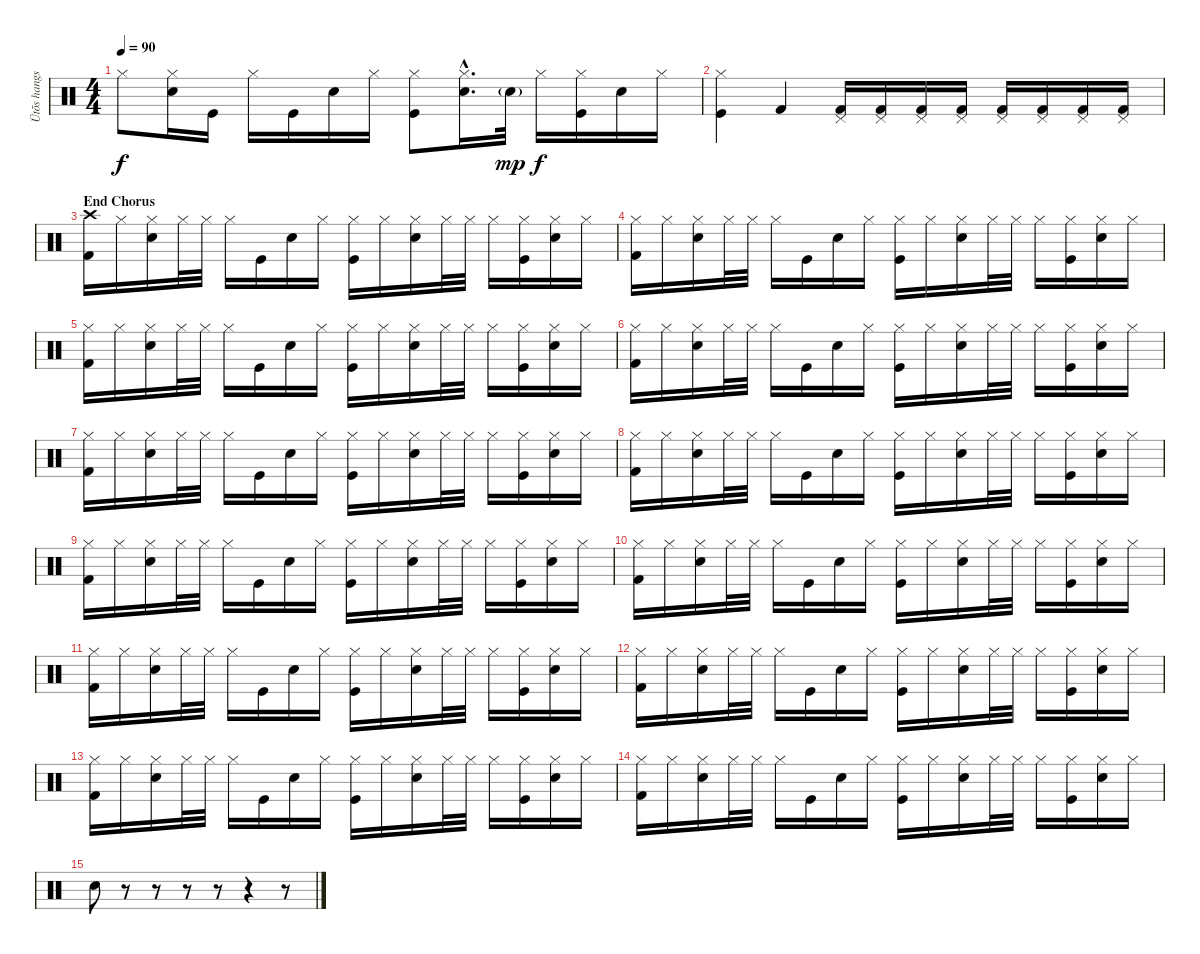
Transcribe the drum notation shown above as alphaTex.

\track ("Ütõs hangszer" "Ütõs hangs") {instrument percussion}
\staff {score}
\articulation defaults
\ts (4 4)
\tempo 90
\clef neutral
\ks c "Hi-Hat (closed)".8{dy f}
("Hi-Hat (closed)" "Electric Snare (hit)").16 "Kick (hit)".16 "Hi-Hat (closed)".16 "Kick (hit)".16 "Electric Snare (hit)".16 "Hi-Hat (closed)".16 ("Hi-Hat (closed)" "Kick (hit)").8 ("Hi-Hat (closed)"{hac} "Electric Snare (hit)"{hac}).16{d} "Electric Snare (hit)"{g}.32{dy mp} "Hi-Hat (closed)".16{dy f} ("Hi-Hat (closed)" "Kick (hit)").16 "Electric Snare (hit)".16 "Hi-Hat (closed)".16 |
("Hi-Hat (closed)" "Kick (hit)").4 "Kick (hit) 2".4 ("Pedal Hi-Hat (hit)" "Kick (hit) 2").16 ("Pedal Hi-Hat (hit)" "Kick (hit) 2").16 ("Pedal Hi-Hat (hit)" "Kick (hit) 2").16 ("Pedal Hi-Hat (hit)" "Kick (hit) 2").16 ("Pedal Hi-Hat (hit)" "Kick (hit) 2").16 ("Pedal Hi-Hat (hit)" "Kick (hit) 2").16 ("Pedal Hi-Hat (hit)" "Kick (hit) 2").16 ("Pedal Hi-Hat (hit)" "Kick (hit) 2").16 |
\section ("" "End Chorus")
("Crash high (hit)" "Kick (hit) 2").16 "Hi-Hat (closed)".16 ("Hi-Hat (closed)" "Electric Snare (hit)").16 "Hi-Hat (closed)".32 "Hi-Hat (closed)".32 "Hi-Hat (closed)".16 "Kick (hit)".16 "Electric Snare (hit)".16 "Hi-Hat (closed)".16 ("Hi-Hat (closed)" "Kick (hit)").16 "Hi-Hat (closed)".16 ("Hi-Hat (closed)" "Electric Snare (hit)").16 "Hi-Hat (closed)".32 "Hi-Hat (closed)".32 "Hi-Hat (closed)".16 ("Hi-Hat (closed)" "Kick (hit)").16 ("Hi-Hat (closed)" "Electric Snare (hit)").16 "Hi-Hat (closed)".16 |
("Hi-Hat (closed)" "Kick (hit) 2").16 "Hi-Hat (closed)".16 ("Hi-Hat (closed)" "Electric Snare (hit)").16 "Hi-Hat (closed)".32 "Hi-Hat (closed)".32 "Hi-Hat (closed)".16 "Kick (hit)".16 "Electric Snare (hit)".16 "Hi-Hat (closed)".16 ("Hi-Hat (closed)" "Kick (hit)").16 "Hi-Hat (closed)".16 ("Hi-Hat (closed)" "Electric Snare (hit)").16 "Hi-Hat (closed)".32 "Hi-Hat (closed)".32 "Hi-Hat (closed)".16 ("Hi-Hat (closed)" "Kick (hit)").16 ("Hi-Hat (closed)" "Electric Snare (hit)").16 "Hi-Hat (closed)".16 |
("Hi-Hat (closed)" "Kick (hit) 2").16 "Hi-Hat (closed)".16 ("Hi-Hat (closed)" "Electric Snare (hit)").16 "Hi-Hat (closed)".32 "Hi-Hat (closed)".32 "Hi-Hat (closed)".16 "Kick (hit)".16 "Electric Snare (hit)".16 "Hi-Hat (closed)".16 ("Hi-Hat (closed)" "Kick (hit)").16 "Hi-Hat (closed)".16 ("Hi-Hat (closed)" "Electric Snare (hit)").16 "Hi-Hat (closed)".32 "Hi-Hat (closed)".32 "Hi-Hat (closed)".16 ("Hi-Hat (closed)" "Kick (hit)").16 ("Hi-Hat (closed)" "Electric Snare (hit)").16 "Hi-Hat (closed)".16 |
("Hi-Hat (closed)" "Kick (hit) 2").16 "Hi-Hat (closed)".16 ("Hi-Hat (closed)" "Electric Snare (hit)").16 "Hi-Hat (closed)".32 "Hi-Hat (closed)".32 "Hi-Hat (closed)".16 "Kick (hit)".16 "Electric Snare (hit)".16 "Hi-Hat (closed)".16 ("Hi-Hat (closed)" "Kick (hit)").16 "Hi-Hat (closed)".16 ("Hi-Hat (closed)" "Electric Snare (hit)").16 "Hi-Hat (closed)".32 "Hi-Hat (closed)".32 "Hi-Hat (closed)".16 ("Hi-Hat (closed)" "Kick (hit)").16 ("Hi-Hat (closed)" "Electric Snare (hit)").16 "Hi-Hat (closed)".16 |
("Hi-Hat (closed)" "Kick (hit) 2").16 "Hi-Hat (closed)".16 ("Hi-Hat (closed)" "Electric Snare (hit)").16 "Hi-Hat (closed)".32 "Hi-Hat (closed)".32 "Hi-Hat (closed)".16 "Kick (hit)".16 "Electric Snare (hit)".16 "Hi-Hat (closed)".16 ("Hi-Hat (closed)" "Kick (hit)").16 "Hi-Hat (closed)".16 ("Hi-Hat (closed)" "Electric Snare (hit)").16 "Hi-Hat (closed)".32 "Hi-Hat (closed)".32 "Hi-Hat (closed)".16 ("Hi-Hat (closed)" "Kick (hit)").16 ("Hi-Hat (closed)" "Electric Snare (hit)").16 "Hi-Hat (closed)".16 |
("Hi-Hat (closed)" "Kick (hit) 2").16 "Hi-Hat (closed)".16 ("Hi-Hat (closed)" "Electric Snare (hit)").16 "Hi-Hat (closed)".32 "Hi-Hat (closed)".32 "Hi-Hat (closed)".16 "Kick (hit)".16 "Electric Snare (hit)".16 "Hi-Hat (closed)".16 ("Hi-Hat (closed)" "Kick (hit)").16 "Hi-Hat (closed)".16 ("Hi-Hat (closed)" "Electric Snare (hit)").16 "Hi-Hat (closed)".32 "Hi-Hat (closed)".32 "Hi-Hat (closed)".16 ("Hi-Hat (closed)" "Kick (hit)").16 ("Hi-Hat (closed)" "Electric Snare (hit)").16 "Hi-Hat (closed)".16 |
("Hi-Hat (closed)" "Kick (hit) 2").16 "Hi-Hat (closed)".16 ("Hi-Hat (closed)" "Electric Snare (hit)").16 "Hi-Hat (closed)".32 "Hi-Hat (closed)".32 "Hi-Hat (closed)".16 "Kick (hit)".16 "Electric Snare (hit)".16 "Hi-Hat (closed)".16 ("Hi-Hat (closed)" "Kick (hit)").16 "Hi-Hat (closed)".16 ("Hi-Hat (closed)" "Electric Snare (hit)").16 "Hi-Hat (closed)".32 "Hi-Hat (closed)".32 "Hi-Hat (closed)".16 ("Hi-Hat (closed)" "Kick (hit)").16 ("Hi-Hat (closed)" "Electric Snare (hit)").16 "Hi-Hat (closed)".16 |
("Hi-Hat (closed)" "Kick (hit) 2").16 "Hi-Hat (closed)".16 ("Hi-Hat (closed)" "Electric Snare (hit)").16 "Hi-Hat (closed)".32 "Hi-Hat (closed)".32 "Hi-Hat (closed)".16 "Kick (hit)".16 "Electric Snare (hit)".16 "Hi-Hat (closed)".16 ("Hi-Hat (closed)" "Kick (hit)").16 "Hi-Hat (closed)".16 ("Hi-Hat (closed)" "Electric Snare (hit)").16 "Hi-Hat (closed)".32 "Hi-Hat (closed)".32 "Hi-Hat (closed)".16 ("Hi-Hat (closed)" "Kick (hit)").16 ("Hi-Hat (closed)" "Electric Snare (hit)").16 "Hi-Hat (closed)".16 |
("Hi-Hat (closed)" "Kick (hit) 2").16 "Hi-Hat (closed)".16 ("Hi-Hat (closed)" "Electric Snare (hit)").16 "Hi-Hat (closed)".32 "Hi-Hat (closed)".32 "Hi-Hat (closed)".16 "Kick (hit)".16 "Electric Snare (hit)".16 "Hi-Hat (closed)".16 ("Hi-Hat (closed)" "Kick (hit)").16 "Hi-Hat (closed)".16 ("Hi-Hat (closed)" "Electric Snare (hit)").16 "Hi-Hat (closed)".32 "Hi-Hat (closed)".32 "Hi-Hat (closed)".16 ("Hi-Hat (closed)" "Kick (hit)").16 ("Hi-Hat (closed)" "Electric Snare (hit)").16 "Hi-Hat (closed)".16 |
("Hi-Hat (closed)" "Kick (hit) 2").16 "Hi-Hat (closed)".16 ("Hi-Hat (closed)" "Electric Snare (hit)").16 "Hi-Hat (closed)".32 "Hi-Hat (closed)".32 "Hi-Hat (closed)".16 "Kick (hit)".16 "Electric Snare (hit)".16 "Hi-Hat (closed)".16 ("Hi-Hat (closed)" "Kick (hit)").16 "Hi-Hat (closed)".16 ("Hi-Hat (closed)" "Electric Snare (hit)").16 "Hi-Hat (closed)".32 "Hi-Hat (closed)".32 "Hi-Hat (closed)".16 ("Hi-Hat (closed)" "Kick (hit)").16 ("Hi-Hat (closed)" "Electric Snare (hit)").16 "Hi-Hat (closed)".16 |
("Hi-Hat (closed)" "Kick (hit) 2").16 "Hi-Hat (closed)".16 ("Hi-Hat (closed)" "Electric Snare (hit)").16 "Hi-Hat (closed)".32 "Hi-Hat (closed)".32 "Hi-Hat (closed)".16 "Kick (hit)".16 "Electric Snare (hit)".16 "Hi-Hat (closed)".16 ("Hi-Hat (closed)" "Kick (hit)").16 "Hi-Hat (closed)".16 ("Hi-Hat (closed)" "Electric Snare (hit)").16 "Hi-Hat (closed)".32 "Hi-Hat (closed)".32 "Hi-Hat (closed)".16 ("Hi-Hat (closed)" "Kick (hit)").16 ("Hi-Hat (closed)" "Electric Snare (hit)").16 "Hi-Hat (closed)".16 |
("Hi-Hat (closed)" "Kick (hit) 2").16 "Hi-Hat (closed)".16 ("Hi-Hat (closed)" "Electric Snare (hit)").16 "Hi-Hat (closed)".32 "Hi-Hat (closed)".32 "Hi-Hat (closed)".16 "Kick (hit)".16 "Electric Snare (hit)".16 "Hi-Hat (closed)".16 ("Hi-Hat (closed)" "Kick (hit)").16 "Hi-Hat (closed)".16 ("Hi-Hat (closed)" "Electric Snare (hit)").16 "Hi-Hat (closed)".32 "Hi-Hat (closed)".32 "Hi-Hat (closed)".16 ("Hi-Hat (closed)" "Kick (hit)").16 ("Hi-Hat (closed)" "Electric Snare (hit)").16 "Hi-Hat (closed)".16 |
"Electric Snare (hit)".8 r.8 r.8 r.8 r.8 r.4 r.8
